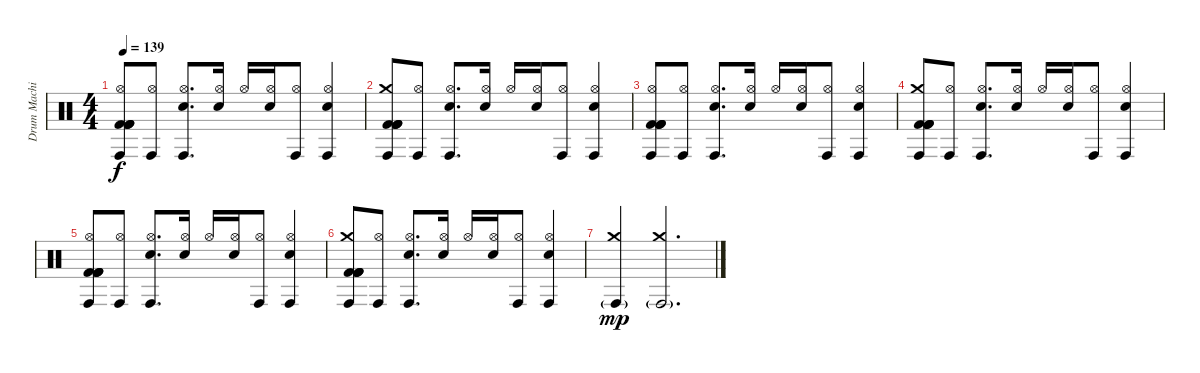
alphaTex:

\track ("Drum Machine" "Drum Machi") {instrument percussion}
\staff {score}
\articulation defaults
\ts (4 4)
\tempo 139
\clef neutral
\ks c
("Conga high (hit)" "Hi-Hat (open)" "Kick (hit) 2" "Kick (hit) 2" "Kick (hit) 2" "Kick (hit) 2").8{dy f} ("Conga high (hit)" "Hi-Hat (open)").8 ("Conga high (hit)" "Hi-Hat (open)" "Electric Snare (hit)").8{d} ("Hi-Hat (open)" "Electric Snare (hit)").16 "Hi-Hat (open)".16 ("Hi-Hat (open)" "Electric Snare (hit)").16 ("Conga high (hit)" "Hi-Hat (open)").8 ("Conga high (hit)" "Hi-Hat (open)" "Electric Snare (hit)").4 |
("Conga high (hit)" "Crash medium (hit)" "Kick (hit) 2" "Kick (hit) 2" "Kick (hit) 2" "Kick (hit) 2").8 ("Conga high (hit)" "Hi-Hat (open)").8 ("Conga high (hit)" "Hi-Hat (open)" "Electric Snare (hit)").8{d} ("Hi-Hat (open)" "Electric Snare (hit)").16 "Hi-Hat (open)".16 ("Hi-Hat (open)" "Electric Snare (hit)").16 ("Conga high (hit)" "Hi-Hat (open)").8 ("Conga high (hit)" "Hi-Hat (open)" "Electric Snare (hit)").4 |
("Conga high (hit)" "Hi-Hat (open)" "Kick (hit) 2" "Kick (hit) 2" "Kick (hit) 2" "Kick (hit) 2").8 ("Conga high (hit)" "Hi-Hat (open)").8 ("Conga high (hit)" "Hi-Hat (open)" "Electric Snare (hit)").8{d} ("Hi-Hat (open)" "Electric Snare (hit)").16 "Hi-Hat (open)".16 ("Hi-Hat (open)" "Electric Snare (hit)").16 ("Conga high (hit)" "Hi-Hat (open)").8 ("Conga high (hit)" "Hi-Hat (open)" "Electric Snare (hit)").4 |
("Conga high (hit)" "Crash medium (hit)" "Kick (hit) 2" "Kick (hit) 2" "Kick (hit) 2" "Kick (hit) 2").8 ("Conga high (hit)" "Hi-Hat (open)").8 ("Conga high (hit)" "Hi-Hat (open)" "Electric Snare (hit)").8{d} ("Hi-Hat (open)" "Electric Snare (hit)").16 "Hi-Hat (open)".16 ("Hi-Hat (open)" "Electric Snare (hit)").16 ("Conga high (hit)" "Hi-Hat (open)").8 ("Conga high (hit)" "Hi-Hat (open)" "Electric Snare (hit)").4 |
("Conga high (hit)" "Hi-Hat (open)" "Kick (hit) 2" "Kick (hit) 2" "Kick (hit) 2" "Kick (hit) 2").8 ("Conga high (hit)" "Hi-Hat (open)").8 ("Conga high (hit)" "Hi-Hat (open)" "Electric Snare (hit)").8{d} ("Hi-Hat (open)" "Electric Snare (hit)").16 "Hi-Hat (open)".16 ("Hi-Hat (open)" "Electric Snare (hit)").16 ("Conga high (hit)" "Hi-Hat (open)").8 ("Conga high (hit)" "Hi-Hat (open)" "Electric Snare (hit)").4 |
("Conga high (hit)" "Crash medium (hit)" "Kick (hit) 2" "Kick (hit) 2" "Kick (hit) 2" "Kick (hit) 2").8 ("Conga high (hit)" "Hi-Hat (open)").8 ("Conga high (hit)" "Hi-Hat (open)" "Electric Snare (hit)").8{d} ("Hi-Hat (open)" "Electric Snare (hit)").16 "Hi-Hat (open)".16 ("Hi-Hat (open)" "Electric Snare (hit)").16 ("Conga high (hit)" "Hi-Hat (open)").8 ("Conga high (hit)" "Hi-Hat (open)" "Electric Snare (hit)").4 |
("Conga high (hit)"{g} "Crash medium (hit)").4{dy mp} ("Conga high (hit)"{g} "Crash medium (hit)").2{d}
